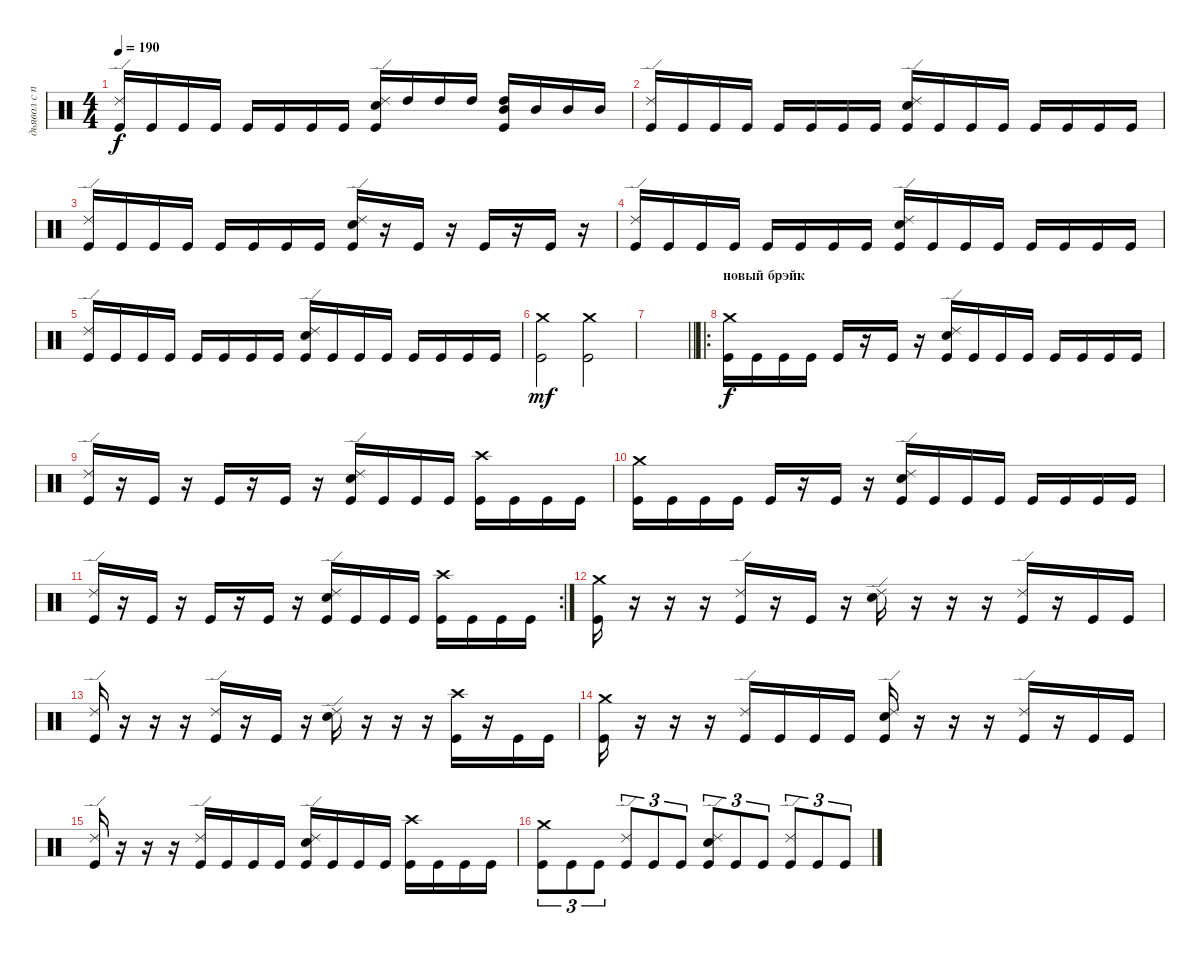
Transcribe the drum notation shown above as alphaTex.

\track ("дьявол с палками" "дьявол с п") {instrument percussion}
\staff {score}
\articulation defaults
\ts (4 4)
\tempo 190
\clef neutral
\ks c
("Kick (hit)" "Ride (edge) 2").16{dy f} "Kick (hit)".16 "Kick (hit)".16 "Kick (hit)".16 "Kick (hit)".16 "Kick (hit)".16 "Kick (hit)".16 "Kick (hit)".16 ("Kick (hit)" "Ride (edge) 2" "Snare (hit) 2").16 "High Tom (hit)".16 "High Tom (hit)".16 "High Tom (hit)".16 ("Kick (hit)" "High Tom (hit)" "Mid Tom (hit)").16 "Mid Tom (hit)".16 "Mid Tom (hit)".16 "Mid Tom (hit)".16 |
("Kick (hit)" "Ride (edge) 2").16 "Kick (hit)".16 "Kick (hit)".16 "Kick (hit)".16 "Kick (hit)".16 "Kick (hit)".16 "Kick (hit)".16 "Kick (hit)".16 ("Kick (hit)" "Ride (edge) 2" "Snare (hit) 2").16 "Kick (hit)".16 "Kick (hit)".16 "Kick (hit)".16 "Kick (hit)".16 "Kick (hit)".16 "Kick (hit)".16 "Kick (hit)".16 |
("Kick (hit)" "Ride (edge) 2").16 "Kick (hit)".16 "Kick (hit)".16 "Kick (hit)".16 "Kick (hit)".16 "Kick (hit)".16 "Kick (hit)".16 "Kick (hit)".16 ("Kick (hit)" "Ride (edge) 2" "Snare (hit) 2").16 r.16 "Kick (hit)".16 r.16 "Kick (hit)".16 r.16 "Kick (hit)".16 r.16 |
("Kick (hit)" "Ride (edge) 2").16 "Kick (hit)".16 "Kick (hit)".16 "Kick (hit)".16 "Kick (hit)".16 "Kick (hit)".16 "Kick (hit)".16 "Kick (hit)".16 ("Kick (hit)" "Ride (edge) 2" "Snare (hit) 2").16 "Kick (hit)".16 "Kick (hit)".16 "Kick (hit)".16 "Kick (hit)".16 "Kick (hit)".16 "Kick (hit)".16 "Kick (hit)".16 |
("Kick (hit)" "Ride (edge) 2").16 "Kick (hit)".16 "Kick (hit)".16 "Kick (hit)".16 "Kick (hit)".16 "Kick (hit)".16 "Kick (hit)".16 "Kick (hit)".16 ("Kick (hit)" "Ride (edge) 2" "Snare (hit) 2").16 "Kick (hit)".16 "Kick (hit)".16 "Kick (hit)".16 "Kick (hit)".16 "Kick (hit)".16 "Kick (hit)".16 "Kick (hit)".16 |
("Crash medium (hit)" "Kick (hit)").2{dy mf} ("Crash medium (hit)" "Kick (hit)").2 |
\barLineRight lightlight
|
\ro
\section ("" "новый брэйк")
("Kick (hit)" "Crash medium (hit)").16{dy f} "Kick (hit)".16 "Kick (hit)".16 "Kick (hit)".16 "Kick (hit)".16 r.16 "Kick (hit)".16 r.16 ("Kick (hit)" "Snare (hit) 2" "Ride (edge) 2").16 "Kick (hit)".16 "Kick (hit)".16 "Kick (hit)".16 "Kick (hit)".16 "Kick (hit)".16 "Kick (hit)".16 "Kick (hit)".16 |
("Kick (hit)" "Ride (edge) 2").16 r.16 "Kick (hit)".16 r.16 "Kick (hit)".16 r.16 "Kick (hit)".16 r.16 ("Kick (hit)" "Snare (hit) 2" "Ride (edge) 2").16 "Kick (hit)".16 "Kick (hit)".16 "Kick (hit)".16 ("Kick (hit)" "Crash high (hit)").16 "Kick (hit)".16 "Kick (hit)".16 "Kick (hit)".16 |
("Kick (hit)" "Crash medium (hit)").16 "Kick (hit)".16 "Kick (hit)".16 "Kick (hit)".16 "Kick (hit)".16 r.16 "Kick (hit)".16 r.16 ("Kick (hit)" "Snare (hit) 2" "Ride (edge) 2").16 "Kick (hit)".16 "Kick (hit)".16 "Kick (hit)".16 "Kick (hit)".16 "Kick (hit)".16 "Kick (hit)".16 "Kick (hit)".16 |
\rc 2
("Kick (hit)" "Ride (edge) 2").16 r.16 "Kick (hit)".16 r.16 "Kick (hit)".16 r.16 "Kick (hit)".16 r.16 ("Kick (hit)" "Snare (hit) 2" "Ride (edge) 2").16 "Kick (hit)".16 "Kick (hit)".16 "Kick (hit)".16 ("Kick (hit)" "Crash high (hit)").16 "Kick (hit)".16 "Kick (hit)".16 "Kick (hit)".16 |
("Kick (hit)" "Crash medium (hit)").16 r.16 r.16 r.16 ("Kick (hit)" "Ride (edge) 2").16 r.16 "Kick (hit)".16 r.16 ("Snare (hit) 2" "Ride (edge) 2").16 r.16 r.16 r.16 ("Kick (hit)" "Ride (edge) 2").16 r.16 "Kick (hit)".16 "Kick (hit)".16 |
("Kick (hit)" "Ride (edge) 2").16 r.16 r.16 r.16 ("Kick (hit)" "Ride (edge) 2").16 r.16 "Kick (hit)".16 r.16 ("Snare (hit) 2" "Ride (edge) 2").16 r.16 r.16 r.16 ("Kick (hit)" "Crash high (hit)").16 r.16 "Kick (hit)".16 "Kick (hit)".16 |
("Kick (hit)" "Crash medium (hit)").16 r.16 r.16 r.16 ("Kick (hit)" "Ride (edge) 2").16 "Kick (hit)".16 "Kick (hit)".16 "Kick (hit)".16 ("Snare (hit) 2" "Kick (hit)" "Ride (edge) 2").16 r.16 r.16 r.16 ("Kick (hit)" "Ride (edge) 2").16 r.16 "Kick (hit)".16 "Kick (hit)".16 |
("Kick (hit)" "Ride (edge) 2").16 r.16 r.16 r.16 ("Kick (hit)" "Ride (edge) 2").16 "Kick (hit)".16 "Kick (hit)".16 "Kick (hit)".16 ("Snare (hit) 2" "Kick (hit)" "Ride (edge) 2").16 "Kick (hit)".16 "Kick (hit)".16 "Kick (hit)".16 ("Kick (hit)" "Crash high (hit)").16 "Kick (hit)".16 "Kick (hit)".16 "Kick (hit)".16 |
("Kick (hit)" "Crash medium (hit)").8{tu (3 2)} "Kick (hit)".8{tu (3 2)} "Kick (hit)".8{tu (3 2)} ("Kick (hit)" "Ride (edge) 2").8{tu (3 2)} "Kick (hit)".8{tu (3 2)} "Kick (hit)".8{tu (3 2)} ("Kick (hit)" "Snare (hit) 2" "Ride (edge) 2").8{tu (3 2)} "Kick (hit)".8{tu (3 2)} "Kick (hit)".8{tu (3 2)} ("Kick (hit)" "Ride (edge) 2").8{tu (3 2)} "Kick (hit)".8{tu (3 2)} "Kick (hit)".8{tu (3 2)}
